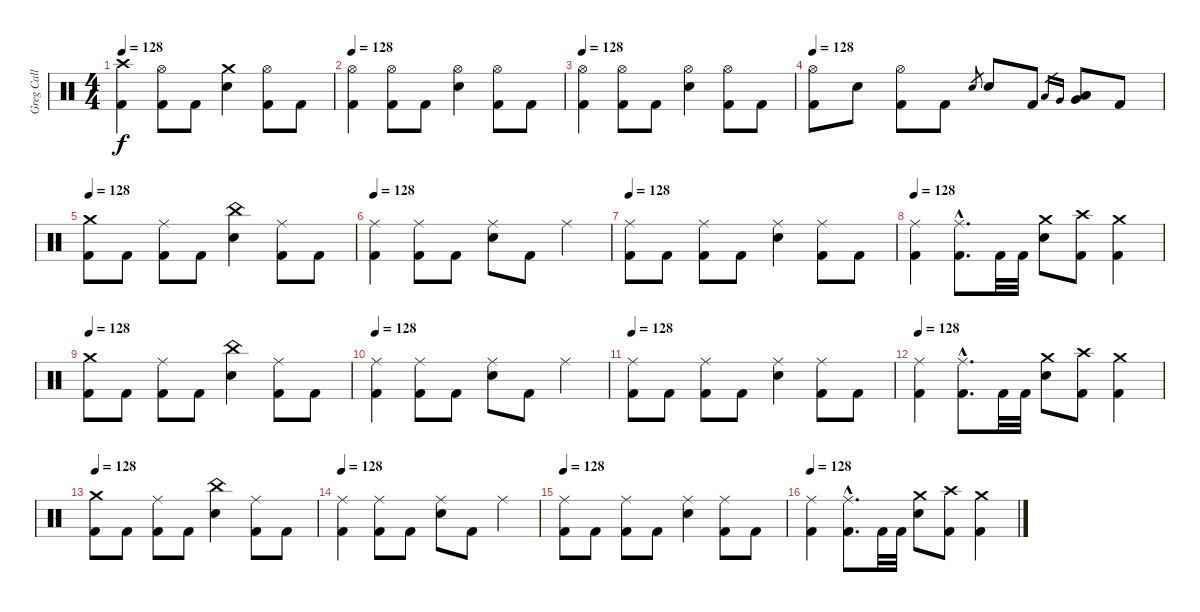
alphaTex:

\track ("Greg Call (Drums)" "Greg Call ") {instrument percussion}
\staff {score}
\articulation defaults
\ts (4 4)
\tempo 128
\clef neutral
\ks c
("Crash high (hit)" "Kick (hit) 2").4{dy f} ("Hi-Hat (open)" "Kick (hit) 2").8 "Kick (hit) 2".8 ("Crash medium (hit)" "Snare (hit) 2").4 ("Hi-Hat (open)" "Kick (hit) 2").8 "Kick (hit) 2".8 |
\tempo 128
("Hi-Hat (open)" "Kick (hit) 2").4 ("Hi-Hat (open)" "Kick (hit) 2").8 "Kick (hit) 2".8 ("Hi-Hat (open)" "Snare (hit) 2").4 ("Hi-Hat (open)" "Kick (hit) 2").8 "Kick (hit) 2".8 |
\tempo 128
("Hi-Hat (open)" "Kick (hit) 2").4 ("Hi-Hat (open)" "Kick (hit) 2").8 "Kick (hit) 2".8 ("Hi-Hat (open)" "Snare (hit) 2").4 ("Hi-Hat (open)" "Kick (hit) 2").8 "Kick (hit) 2".8 |
\tempo 128
("Hi-Hat (open)" "Kick (hit) 2").8 "Snare (hit) 2".8 ("Kick (hit) 2" "Hi-Hat (open)").8 "Kick (hit) 2".8 "Snare (hit) 2".8{gr} "Snare (hit) 2".8 "Kick (hit) 2".8 "Low Floor Tom (hit)".16{gr} "Very Low Tom (hit)".16{gr} ("Low Floor Tom (hit)" "Very Low Tom (hit)").8 "Kick (hit) 2".8 |
\tempo 128
("Crash medium (hit)" "Kick (hit) 2").8 "Kick (hit) 2".8 ("Ride (middle)" "Kick (hit) 2").8 "Kick (hit) 2".8 ("China (hit)" "Snare (hit) 2").4 ("Ride (middle)" "Kick (hit) 2").8 "Kick (hit) 2".8 |
\tempo 128
("Ride (middle)" "Kick (hit) 2").4 ("Ride (middle)" "Kick (hit) 2").8 "Kick (hit) 2".8 ("Ride (middle)" "Snare (hit) 2").8 "Kick (hit) 2".8 "Ride (middle)".4 |
\tempo 128
("Ride (middle)" "Kick (hit) 2").8 "Kick (hit) 2".8 ("Ride (middle)" "Kick (hit) 2").8 "Kick (hit) 2".8 ("Ride (middle)" "Snare (hit) 2").4 ("Ride (middle)" "Kick (hit) 2").8 "Kick (hit) 2".8 |
\tempo 128
("Ride (middle)" "Kick (hit) 2").4 ("Ride (middle)"{hac} "Kick (hit) 2"{hac}).8{d} "Kick (hit) 2".32 "Kick (hit) 2".32 ("Crash medium (hit)" "Snare (hit) 2").8 ("Crash high (hit)" "Kick (hit) 2").8 ("Crash medium (hit)" "Kick (hit) 2").4 |
\tempo 128
("Crash medium (hit)" "Kick (hit) 2").8 "Kick (hit) 2".8 ("Ride (middle)" "Kick (hit) 2").8 "Kick (hit) 2".8 ("China (hit)" "Snare (hit) 2").4 ("Ride (middle)" "Kick (hit) 2").8 "Kick (hit) 2".8 |
\tempo 128
("Ride (middle)" "Kick (hit) 2").4 ("Ride (middle)" "Kick (hit) 2").8 "Kick (hit) 2".8 ("Ride (middle)" "Snare (hit) 2").8 "Kick (hit) 2".8 "Ride (middle)".4 |
\tempo 128
("Ride (middle)" "Kick (hit) 2").8 "Kick (hit) 2".8 ("Ride (middle)" "Kick (hit) 2").8 "Kick (hit) 2".8 ("Ride (middle)" "Snare (hit) 2").4 ("Ride (middle)" "Kick (hit) 2").8 "Kick (hit) 2".8 |
\tempo 128
("Ride (middle)" "Kick (hit) 2").4 ("Ride (middle)"{hac} "Kick (hit) 2"{hac}).8{d} "Kick (hit) 2".32 "Kick (hit) 2".32 ("Crash medium (hit)" "Snare (hit) 2").8 ("Crash high (hit)" "Kick (hit) 2").8 ("Crash medium (hit)" "Kick (hit) 2").4 |
\tempo 128
("Crash medium (hit)" "Kick (hit) 2").8 "Kick (hit) 2".8 ("Ride (middle)" "Kick (hit) 2").8 "Kick (hit) 2".8 ("China (hit)" "Snare (hit) 2").4 ("Ride (middle)" "Kick (hit) 2").8 "Kick (hit) 2".8 |
\tempo 128
("Ride (middle)" "Kick (hit) 2").4 ("Ride (middle)" "Kick (hit) 2").8 "Kick (hit) 2".8 ("Ride (middle)" "Snare (hit) 2").8 "Kick (hit) 2".8 "Ride (middle)".4 |
\tempo 128
("Ride (middle)" "Kick (hit) 2").8 "Kick (hit) 2".8 ("Ride (middle)" "Kick (hit) 2").8 "Kick (hit) 2".8 ("Ride (middle)" "Snare (hit) 2").4 ("Ride (middle)" "Kick (hit) 2").8 "Kick (hit) 2".8 |
\tempo 128
("Ride (middle)" "Kick (hit) 2").4 ("Ride (middle)"{hac} "Kick (hit) 2"{hac}).8{d} "Kick (hit) 2".32 "Kick (hit) 2".32 ("Crash medium (hit)" "Snare (hit) 2").8 ("Crash high (hit)" "Kick (hit) 2").8 ("Crash medium (hit)" "Kick (hit) 2").4
